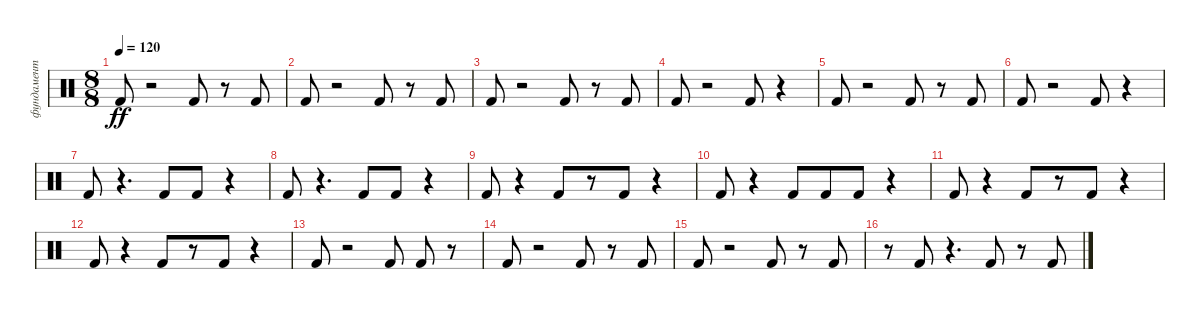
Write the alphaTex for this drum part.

\track ("фундамент" "фундамент") {instrument percussion}
\staff {score}
\articulation defaults
\ts (8 8)
\tempo 120
\clef neutral
\ks c "Kick (hit) 2".8{dy ff}
r.2 "Kick (hit) 2".8 r.8 "Kick (hit) 2".8 |
"Kick (hit) 2".8 r.2 "Kick (hit) 2".8 r.8 "Kick (hit) 2".8 |
"Kick (hit) 2".8 r.2 "Kick (hit) 2".8 r.8 "Kick (hit) 2".8 |
"Kick (hit) 2".8 r.2 "Kick (hit) 2".8 r.4 |
"Kick (hit) 2".8 r.2 "Kick (hit) 2".8 r.8 "Kick (hit) 2".8 |
"Kick (hit) 2".8 r.2 "Kick (hit) 2".8 r.4 |
"Kick (hit) 2".8 r.4{d} "Kick (hit) 2".8 "Kick (hit) 2".8 r.4 |
"Kick (hit) 2".8 r.4{d} "Kick (hit) 2".8 "Kick (hit) 2".8 r.4 |
"Kick (hit) 2".8 r.4 "Kick (hit) 2".8 r.8 "Kick (hit) 2".8 r.4 |
"Kick (hit) 2".8 r.4 "Kick (hit) 2".8 "Kick (hit) 2".8 "Kick (hit) 2".8 r.4 |
"Kick (hit) 2".8 r.4 "Kick (hit) 2".8 r.8 "Kick (hit) 2".8 r.4 |
"Kick (hit) 2".8 r.4 "Kick (hit) 2".8 r.8 "Kick (hit) 2".8 r.4 |
"Kick (hit) 2".8 r.2 "Kick (hit) 2".8 "Kick (hit) 2".8 r.8 |
"Kick (hit) 2".8 r.2 "Kick (hit) 2".8 r.8 "Kick (hit) 2".8 |
"Kick (hit) 2".8 r.2 "Kick (hit) 2".8 r.8 "Kick (hit) 2".8 |
r.8 "Kick (hit) 2".8 r.4{d} "Kick (hit) 2".8 r.8 "Kick (hit) 2".8
